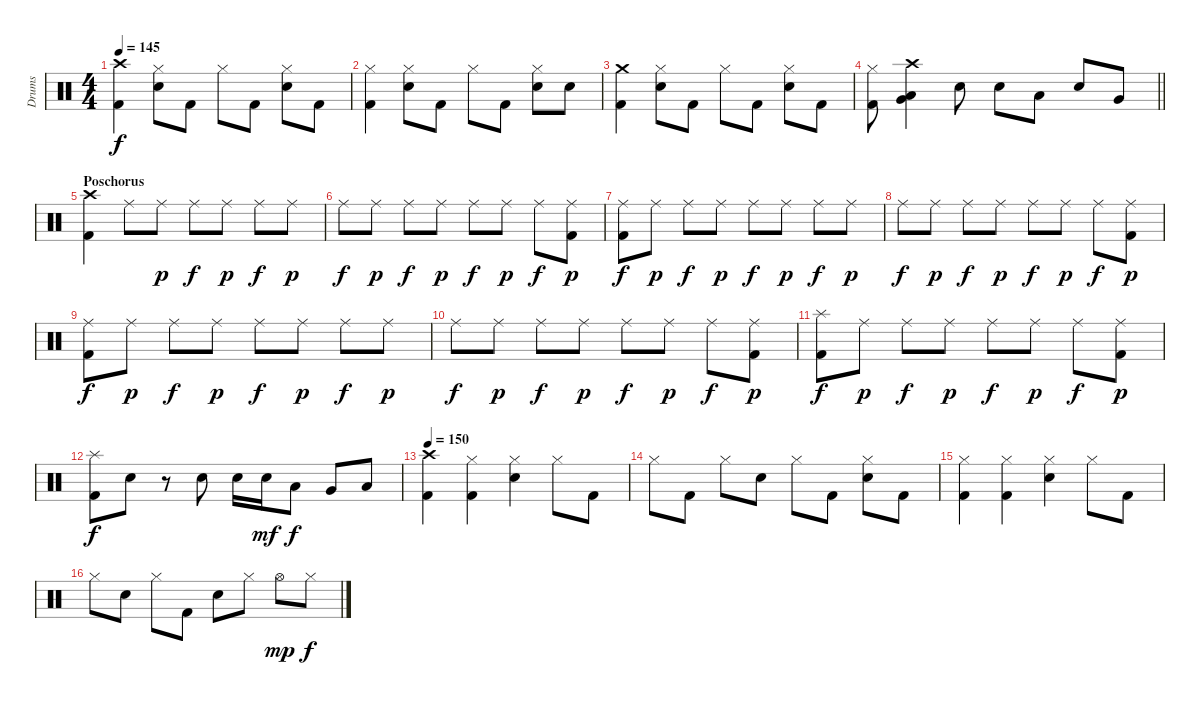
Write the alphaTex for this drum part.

\track ("Drums" "Drums") {instrument percussion}
\staff {score}
\articulation defaults
\ts (4 4)
\tempo 145
\clef neutral
\ks c
("Kick (hit) 2" "Crash high (hit)").4{dy f} ("Hi-Hat (closed)" "Electric Snare (hit)").8 "Kick (hit) 2".8 "Hi-Hat (closed)".8 "Kick (hit) 2".8 ("Hi-Hat (closed)" "Electric Snare (hit)").8 "Kick (hit) 2".8 |
("Kick (hit) 2" "Hi-Hat (closed)").4 ("Hi-Hat (closed)" "Electric Snare (hit)").8 "Kick (hit) 2".8 "Hi-Hat (closed)".8 "Kick (hit) 2".8 ("Hi-Hat (closed)" "Electric Snare (hit)").8 "Electric Snare (hit)".8 |
("Kick (hit) 2" "Crash medium (hit)").4 ("Hi-Hat (closed)" "Electric Snare (hit)").8 "Kick (hit) 2".8 "Hi-Hat (closed)".8 "Kick (hit) 2".8 ("Hi-Hat (closed)" "Electric Snare (hit)").8 "Kick (hit) 2".8 |
\barLineRight lightlight
("Kick (hit) 2" "Hi-Hat (closed)").8 ("Crash high (hit)" "Very Low Tom (hit)" "Low Tom (hit)").4 "Electric Snare (hit)".8 "Electric Snare (hit)".8 "Low Tom (hit)".8 "Electric Snare (hit)".8 "Very Low Tom (hit)".8 |
\section ("" "Poschorus")
("Kick (hit) 2" "Crash high (hit)").4 "Ride (middle)".8 "Ride (middle)".8{dy p} "Ride (middle)".8{dy f} "Ride (middle)".8{dy p} "Ride (middle)".8{dy f} "Ride (middle)".8{dy p} |
"Ride (middle)".8{dy f} "Ride (middle)".8{dy p} "Ride (middle)".8{dy f} "Ride (middle)".8{dy p} "Ride (middle)".8{dy f} "Ride (middle)".8{dy p} "Ride (middle)".8{dy f} ("Kick (hit) 2" "Ride (middle)").8{dy p} |
("Kick (hit) 2" "Ride (middle)").8{dy f} "Ride (middle)".8{dy p} "Ride (middle)".8{dy f} "Ride (middle)".8{dy p} "Ride (middle)".8{dy f} "Ride (middle)".8{dy p} "Ride (middle)".8{dy f} "Ride (middle)".8{dy p} |
"Ride (middle)".8{dy f} "Ride (middle)".8{dy p} "Ride (middle)".8{dy f} "Ride (middle)".8{dy p} "Ride (middle)".8{dy f} "Ride (middle)".8{dy p} "Ride (middle)".8{dy f} ("Kick (hit) 2" "Ride (middle)").8{dy p} |
("Kick (hit) 2" "Ride (middle)").8{dy f} "Ride (middle)".8{dy p} "Ride (middle)".8{dy f} "Ride (middle)".8{dy p} "Ride (middle)".8{dy f} "Ride (middle)".8{dy p} "Ride (middle)".8{dy f} "Ride (middle)".8{dy p} |
"Ride (middle)".8{dy f} "Ride (middle)".8{dy p} "Ride (middle)".8{dy f} "Ride (middle)".8{dy p} "Ride (middle)".8{dy f} "Ride (middle)".8{dy p} "Ride (middle)".8{dy f} ("Kick (hit) 2" "Ride (middle)").8{dy p} |
("Kick (hit) 2" "Splash (hit)").8{dy f} "Ride (middle)".8{dy p} "Ride (middle)".8{dy f} "Ride (middle)".8{dy p} "Ride (middle)".8{dy f} "Ride (middle)".8{dy p} "Ride (middle)".8{dy f} ("Kick (hit) 2" "Ride (middle)").8{dy p} |
("Kick (hit) 2" "Splash (hit)").8{dy f} "Electric Snare (hit)".8 r.8 "Electric Snare (hit)".8 "Electric Snare (hit)".16 "Electric Snare (hit)".16{dy mf} "Low Tom (hit)".8{dy f} "Very Low Tom (hit)".8 "Low Floor Tom (hit)".8 |
\tempo 150
("Kick (hit) 2" "Crash high (hit)").4 ("Kick (hit) 2" "Hi-Hat (closed)").4 ("Hi-Hat (closed)" "Electric Snare (hit)").4 "Hi-Hat (closed)".8 "Kick (hit) 2".8 |
"Hi-Hat (closed)".8 "Kick (hit) 2".8 "Hi-Hat (closed)".8 "Electric Snare (hit)".8 "Hi-Hat (closed)".8 "Kick (hit) 2".8 ("Hi-Hat (closed)" "Electric Snare (hit)").8 "Kick (hit) 2".8 |
("Kick (hit) 2" "Hi-Hat (closed)").4 ("Kick (hit) 2" "Hi-Hat (closed)").4 ("Hi-Hat (closed)" "Electric Snare (hit)").4 "Hi-Hat (closed)".8 "Kick (hit) 2".8 |
"Hi-Hat (closed)".8 "Electric Snare (hit)".8 "Hi-Hat (closed)".8 "Kick (hit) 2".8 "Electric Snare (hit)".8 "Hi-Hat (closed)".8 "Hi-Hat (open)".8{dy mp} "Hi-Hat (closed)".8{dy f}
